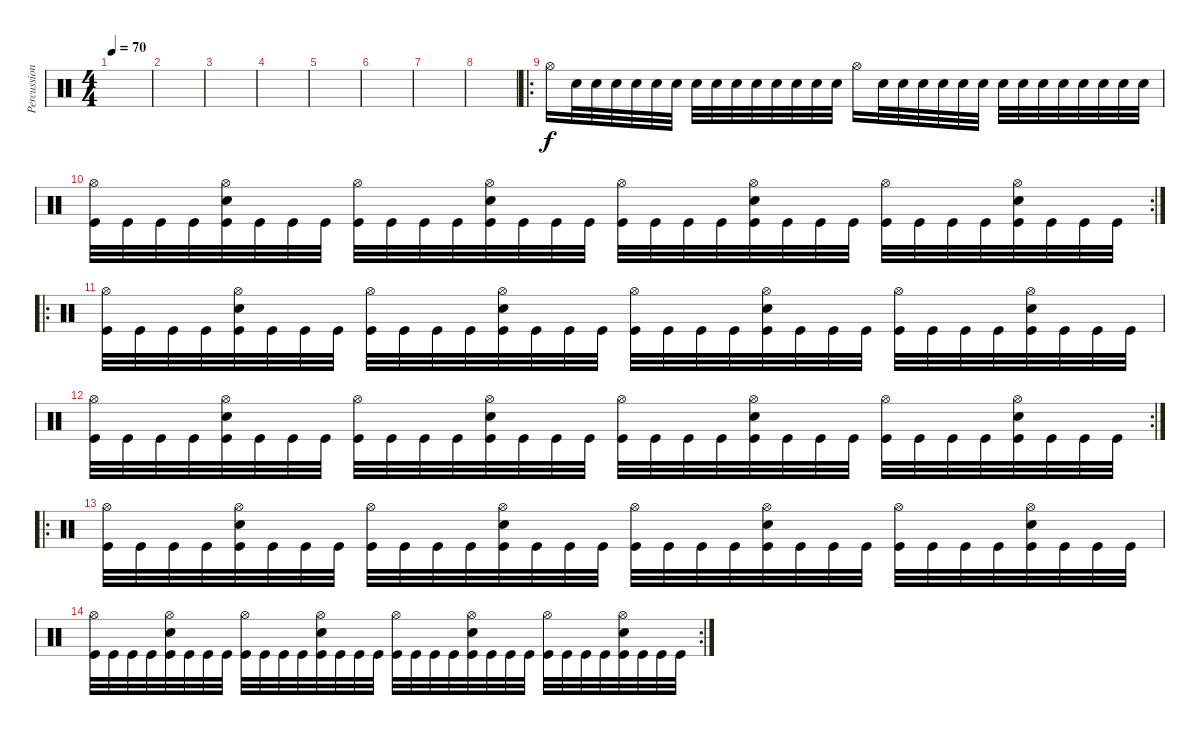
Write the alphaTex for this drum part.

\track ("Percussion" "Percussion") {instrument percussion}
\staff {score}
\articulation defaults
\ts (4 4)
\tempo 70
\clef neutral
\ks c
|
|
|
|
|
|
|
|
\ro "Hi-Hat (open)".16 "Snare (hit) 2".32 "Snare (hit) 2".32 "Snare (hit) 2".32 "Snare (hit) 2".32 "Snare (hit) 2".32 "Snare (hit) 2".32 "Snare (hit) 2".32 "Snare (hit) 2".32 "Snare (hit) 2".32 "Snare (hit) 2".32 "Snare (hit) 2".32 "Snare (hit) 2".32 "Snare (hit) 2".32 "Snare (hit) 2".32 "Hi-Hat (open)".16 "Snare (hit) 2".32 "Snare (hit) 2".32 "Snare (hit) 2".32 "Snare (hit) 2".32 "Snare (hit) 2".32 "Snare (hit) 2".32 "Snare (hit) 2".32 "Snare (hit) 2".32 "Snare (hit) 2".32 "Snare (hit) 2".32 "Snare (hit) 2".32 "Snare (hit) 2".32 "Snare (hit) 2".32 "Snare (hit) 2".32
|
\rc 2
("Hi-Hat (open)" "Kick (hit)").32 "Kick (hit)".32 "Kick (hit)".32 "Kick (hit)".32 ("Hi-Hat (open)" "Snare (hit) 2" "Kick (hit)").32 "Kick (hit)".32 "Kick (hit)".32 "Kick (hit)".32 ("Hi-Hat (open)" "Kick (hit)").32 "Kick (hit)".32 "Kick (hit)".32 "Kick (hit)".32 ("Hi-Hat (open)" "Snare (hit) 2" "Kick (hit)").32 "Kick (hit)".32 "Kick (hit)".32 "Kick (hit)".32 ("Hi-Hat (open)" "Kick (hit)").32 "Kick (hit)".32 "Kick (hit)".32 "Kick (hit)".32 ("Hi-Hat (open)" "Snare (hit) 2" "Kick (hit)").32 "Kick (hit)".32 "Kick (hit)".32 "Kick (hit)".32 ("Hi-Hat (open)" "Kick (hit)").32 "Kick (hit)".32 "Kick (hit)".32 "Kick (hit)".32 ("Hi-Hat (open)" "Snare (hit) 2" "Kick (hit)").32 "Kick (hit)".32 "Kick (hit)".32 "Kick (hit)".32 |
\ro
("Hi-Hat (open)" "Kick (hit)").32 "Kick (hit)".32 "Kick (hit)".32 "Kick (hit)".32 ("Hi-Hat (open)" "Snare (hit) 2" "Kick (hit)").32 "Kick (hit)".32 "Kick (hit)".32 "Kick (hit)".32 ("Hi-Hat (open)" "Kick (hit)").32 "Kick (hit)".32 "Kick (hit)".32 "Kick (hit)".32 ("Hi-Hat (open)" "Snare (hit) 2" "Kick (hit)").32 "Kick (hit)".32 "Kick (hit)".32 "Kick (hit)".32 ("Hi-Hat (open)" "Kick (hit)").32 "Kick (hit)".32 "Kick (hit)".32 "Kick (hit)".32 ("Hi-Hat (open)" "Snare (hit) 2" "Kick (hit)").32 "Kick (hit)".32 "Kick (hit)".32 "Kick (hit)".32 ("Hi-Hat (open)" "Kick (hit)").32 "Kick (hit)".32 "Kick (hit)".32 "Kick (hit)".32 ("Hi-Hat (open)" "Snare (hit) 2" "Kick (hit)").32 "Kick (hit)".32 "Kick (hit)".32 "Kick (hit)".32 |
\rc 2
("Hi-Hat (open)" "Kick (hit)").32 "Kick (hit)".32 "Kick (hit)".32 "Kick (hit)".32 ("Hi-Hat (open)" "Snare (hit) 2" "Kick (hit)").32 "Kick (hit)".32 "Kick (hit)".32 "Kick (hit)".32 ("Hi-Hat (open)" "Kick (hit)").32 "Kick (hit)".32 "Kick (hit)".32 "Kick (hit)".32 ("Hi-Hat (open)" "Snare (hit) 2" "Kick (hit)").32 "Kick (hit)".32 "Kick (hit)".32 "Kick (hit)".32 ("Hi-Hat (open)" "Kick (hit)").32 "Kick (hit)".32 "Kick (hit)".32 "Kick (hit)".32 ("Hi-Hat (open)" "Snare (hit) 2" "Kick (hit)").32 "Kick (hit)".32 "Kick (hit)".32 "Kick (hit)".32 ("Hi-Hat (open)" "Kick (hit)").32 "Kick (hit)".32 "Kick (hit)".32 "Kick (hit)".32 ("Hi-Hat (open)" "Snare (hit) 2" "Kick (hit)").32 "Kick (hit)".32 "Kick (hit)".32 "Kick (hit)".32 |
\ro
("Hi-Hat (open)" "Kick (hit)").32 "Kick (hit)".32 "Kick (hit)".32 "Kick (hit)".32 ("Hi-Hat (open)" "Snare (hit) 2" "Kick (hit)").32 "Kick (hit)".32 "Kick (hit)".32 "Kick (hit)".32 ("Hi-Hat (open)" "Kick (hit)").32 "Kick (hit)".32 "Kick (hit)".32 "Kick (hit)".32 ("Hi-Hat (open)" "Snare (hit) 2" "Kick (hit)").32 "Kick (hit)".32 "Kick (hit)".32 "Kick (hit)".32 ("Hi-Hat (open)" "Kick (hit)").32 "Kick (hit)".32 "Kick (hit)".32 "Kick (hit)".32 ("Hi-Hat (open)" "Snare (hit) 2" "Kick (hit)").32 "Kick (hit)".32 "Kick (hit)".32 "Kick (hit)".32 ("Hi-Hat (open)" "Kick (hit)").32 "Kick (hit)".32 "Kick (hit)".32 "Kick (hit)".32 ("Hi-Hat (open)" "Snare (hit) 2" "Kick (hit)").32 "Kick (hit)".32 "Kick (hit)".32 "Kick (hit)".32 |
\rc 2
("Hi-Hat (open)" "Kick (hit)").32 "Kick (hit)".32 "Kick (hit)".32 "Kick (hit)".32 ("Hi-Hat (open)" "Snare (hit) 2" "Kick (hit)").32 "Kick (hit)".32 "Kick (hit)".32 "Kick (hit)".32 ("Hi-Hat (open)" "Kick (hit)").32 "Kick (hit)".32 "Kick (hit)".32 "Kick (hit)".32 ("Hi-Hat (open)" "Snare (hit) 2" "Kick (hit)").32 "Kick (hit)".32 "Kick (hit)".32 "Kick (hit)".32 ("Hi-Hat (open)" "Kick (hit)").32 "Kick (hit)".32 "Kick (hit)".32 "Kick (hit)".32 ("Hi-Hat (open)" "Snare (hit) 2" "Kick (hit)").32 "Kick (hit)".32 "Kick (hit)".32 "Kick (hit)".32 ("Hi-Hat (open)" "Kick (hit)").32 "Kick (hit)".32 "Kick (hit)".32 "Kick (hit)".32 ("Hi-Hat (open)" "Snare (hit) 2" "Kick (hit)").32 "Kick (hit)".32 "Kick (hit)".32 "Kick (hit)".32
